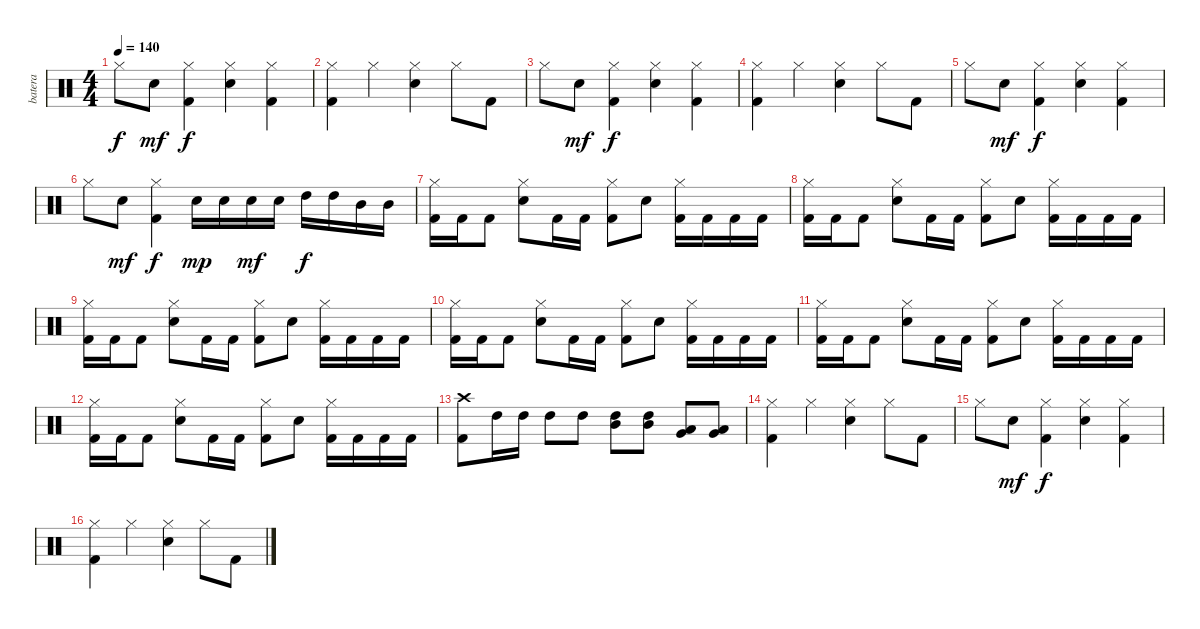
\track ("batera" "batera") {instrument percussion}
\staff {score}
\articulation defaults
\ts (4 4)
\tempo 140
\clef neutral
\ks c "Hi-Hat (closed)".8{dy f} "Electric Snare (hit)".8{dy mf}
("Hi-Hat (closed)" "Kick (hit) 2").4{dy f} ("Hi-Hat (closed)" "Electric Snare (hit)").4 ("Hi-Hat (closed)" "Kick (hit) 2").4 |
("Hi-Hat (closed)" "Kick (hit) 2").4 "Hi-Hat (closed)".4 ("Hi-Hat (closed)" "Electric Snare (hit)").4 "Hi-Hat (closed)".8 "Kick (hit) 2".8 |
"Hi-Hat (closed)".8 "Electric Snare (hit)".8{dy mf} ("Hi-Hat (closed)" "Kick (hit) 2").4{dy f} ("Hi-Hat (closed)" "Electric Snare (hit)").4 ("Hi-Hat (closed)" "Kick (hit) 2").4 |
("Hi-Hat (closed)" "Kick (hit) 2").4 "Hi-Hat (closed)".4 ("Hi-Hat (closed)" "Electric Snare (hit)").4 "Hi-Hat (closed)".8 "Kick (hit) 2".8 |
"Hi-Hat (closed)".8 "Electric Snare (hit)".8{dy mf} ("Hi-Hat (closed)" "Kick (hit) 2").4{dy f} ("Hi-Hat (closed)" "Electric Snare (hit)").4 ("Hi-Hat (closed)" "Kick (hit) 2").4 |
"Hi-Hat (closed)".8 "Electric Snare (hit)".8{dy mf} ("Hi-Hat (closed)" "Kick (hit) 2").4{dy f} "Electric Snare (hit)".16{dy mp} "Electric Snare (hit)".16 "Electric Snare (hit)".16{dy mf} "Electric Snare (hit)".16 "High Tom (hit)".16{dy f} "High Tom (hit)".16 "Mid Tom (hit)".16 "Mid Tom (hit)".16 |
("Hi-Hat (closed)" "Kick (hit) 2").16 "Kick (hit) 2".16 "Kick (hit) 2".8 ("Hi-Hat (closed)" "Electric Snare (hit)").8 "Kick (hit) 2".16 "Kick (hit) 2".16 ("Hi-Hat (closed)" "Kick (hit) 2").8 "Electric Snare (hit)".8 ("Hi-Hat (closed)" "Kick (hit) 2").16 "Kick (hit) 2".16 "Kick (hit) 2".16 "Kick (hit) 2".16 |
("Hi-Hat (closed)" "Kick (hit) 2").16 "Kick (hit) 2".16 "Kick (hit) 2".8 ("Hi-Hat (closed)" "Electric Snare (hit)").8 "Kick (hit) 2".16 "Kick (hit) 2".16 ("Hi-Hat (closed)" "Kick (hit) 2").8 "Electric Snare (hit)".8 ("Hi-Hat (closed)" "Kick (hit) 2").16 "Kick (hit) 2".16 "Kick (hit) 2".16 "Kick (hit) 2".16 |
("Hi-Hat (closed)" "Kick (hit) 2").16 "Kick (hit) 2".16 "Kick (hit) 2".8 ("Hi-Hat (closed)" "Electric Snare (hit)").8 "Kick (hit) 2".16 "Kick (hit) 2".16 ("Hi-Hat (closed)" "Kick (hit) 2").8 "Electric Snare (hit)".8 ("Hi-Hat (closed)" "Kick (hit) 2").16 "Kick (hit) 2".16 "Kick (hit) 2".16 "Kick (hit) 2".16 |
("Hi-Hat (closed)" "Kick (hit) 2").16 "Kick (hit) 2".16 "Kick (hit) 2".8 ("Hi-Hat (closed)" "Electric Snare (hit)").8 "Kick (hit) 2".16 "Kick (hit) 2".16 ("Hi-Hat (closed)" "Kick (hit) 2").8 "Electric Snare (hit)".8 ("Hi-Hat (closed)" "Kick (hit) 2").16 "Kick (hit) 2".16 "Kick (hit) 2".16 "Kick (hit) 2".16 |
("Hi-Hat (closed)" "Kick (hit) 2").16 "Kick (hit) 2".16 "Kick (hit) 2".8 ("Hi-Hat (closed)" "Electric Snare (hit)").8 "Kick (hit) 2".16 "Kick (hit) 2".16 ("Hi-Hat (closed)" "Kick (hit) 2").8 "Electric Snare (hit)".8 ("Hi-Hat (closed)" "Kick (hit) 2").16 "Kick (hit) 2".16 "Kick (hit) 2".16 "Kick (hit) 2".16 |
("Hi-Hat (closed)" "Kick (hit) 2").16 "Kick (hit) 2".16 "Kick (hit) 2".8 ("Hi-Hat (closed)" "Electric Snare (hit)").8 "Kick (hit) 2".16 "Kick (hit) 2".16 ("Hi-Hat (closed)" "Kick (hit) 2").8 "Electric Snare (hit)".8 ("Hi-Hat (closed)" "Kick (hit) 2").16 "Kick (hit) 2".16 "Kick (hit) 2".16 "Kick (hit) 2".16 |
("Crash high (hit)" "Kick (hit) 2").8 "High Tom (hit)".16 "High Tom (hit)".16 "High Tom (hit)".8 "High Tom (hit)".8 ("Mid Tom (hit)" "High Tom (hit)").8 ("Mid Tom (hit)" "High Tom (hit)").8 ("Low Tom (hit)" "Very Low Tom (hit)").8 ("Low Tom (hit)" "Very Low Tom (hit)").8 |
("Hi-Hat (closed)" "Kick (hit) 2").4 "Hi-Hat (closed)".4 ("Hi-Hat (closed)" "Electric Snare (hit)").4 "Hi-Hat (closed)".8 "Kick (hit) 2".8 |
"Hi-Hat (closed)".8 "Electric Snare (hit)".8{dy mf} ("Hi-Hat (closed)" "Kick (hit) 2").4{dy f} ("Hi-Hat (closed)" "Electric Snare (hit)").4 ("Hi-Hat (closed)" "Kick (hit) 2").4 |
("Hi-Hat (closed)" "Kick (hit) 2").4 "Hi-Hat (closed)".4 ("Hi-Hat (closed)" "Electric Snare (hit)").4 "Hi-Hat (closed)".8 "Kick (hit) 2".8
